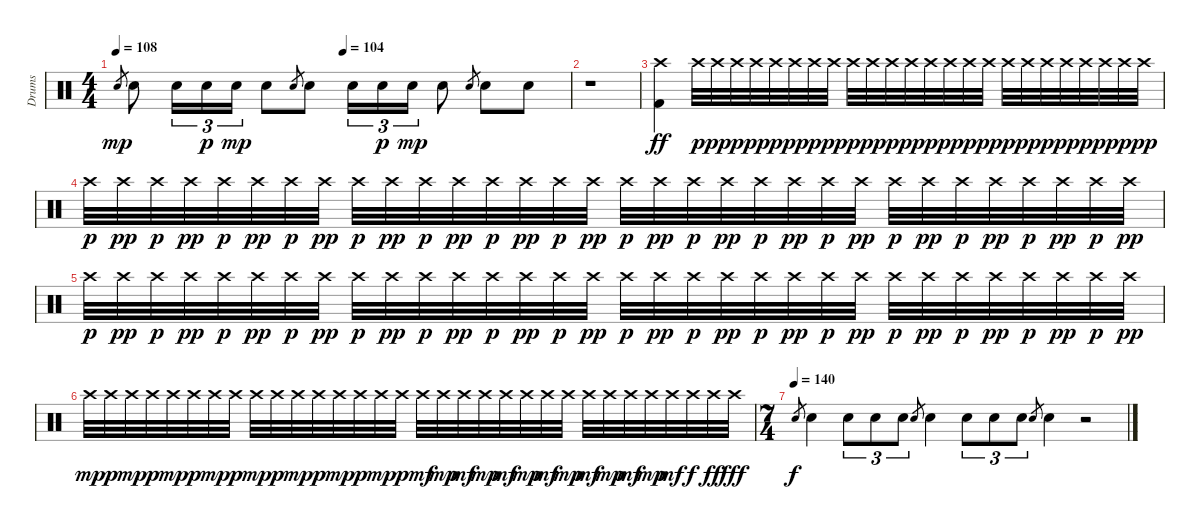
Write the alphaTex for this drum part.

\track ("Drums" "Drums") {instrument percussion}
\staff {score}
\articulation defaults
\ts (4 4)
\tempo 108
\tempo (104 0.5)
\clef neutral
\ks c "Snare (hit) 2".8{gr dy mp} "Snare (hit) 2".8 "Snare (hit) 2".16{tu (3 2)} "Snare (hit) 2".16{tu (3 2) dy p} "Snare (hit) 2".16{tu (3 2) dy mp} "Snare (hit) 2".8 "Snare (hit) 2".8{gr} "Snare (hit) 2".8 "Snare (hit) 2".16{tu (3 2)} "Snare (hit) 2".16{tu (3 2) dy p} "Snare (hit) 2".16{tu (3 2) dy mp} "Snare (hit) 2".8 "Snare (hit) 2".8{gr} "Snare (hit) 2".8 "Snare (hit) 2".8
|
r.1 |
("Crash high (hit)" "Kick (hit) 2").4{dy ff} "Crash high (hit)".32{dy p} "Crash high (hit)".32{dy pp} "Crash high (hit)".32{dy p} "Crash high (hit)".32{dy pp} "Crash high (hit)".32{dy p} "Crash high (hit)".32{dy pp} "Crash high (hit)".32{dy p} "Crash high (hit)".32{dy pp} "Crash high (hit)".32{dy p} "Crash high (hit)".32{dy pp} "Crash high (hit)".32{dy p} "Crash high (hit)".32{dy pp} "Crash high (hit)".32{dy p} "Crash high (hit)".32{dy pp} "Crash high (hit)".32{dy p} "Crash high (hit)".32{dy pp} "Crash high (hit)".32{dy p} "Crash high (hit)".32{dy pp} "Crash high (hit)".32{dy p} "Crash high (hit)".32{dy pp} "Crash high (hit)".32{dy p} "Crash high (hit)".32{dy pp} "Crash high (hit)".32{dy p} "Crash high (hit)".32{dy pp} |
"Crash high (hit)".32{dy p} "Crash high (hit)".32{dy pp} "Crash high (hit)".32{dy p} "Crash high (hit)".32{dy pp} "Crash high (hit)".32{dy p} "Crash high (hit)".32{dy pp} "Crash high (hit)".32{dy p} "Crash high (hit)".32{dy pp} "Crash high (hit)".32{dy p} "Crash high (hit)".32{dy pp} "Crash high (hit)".32{dy p} "Crash high (hit)".32{dy pp} "Crash high (hit)".32{dy p} "Crash high (hit)".32{dy pp} "Crash high (hit)".32{dy p} "Crash high (hit)".32{dy pp} "Crash high (hit)".32{dy p} "Crash high (hit)".32{dy pp} "Crash high (hit)".32{dy p} "Crash high (hit)".32{dy pp} "Crash high (hit)".32{dy p} "Crash high (hit)".32{dy pp} "Crash high (hit)".32{dy p} "Crash high (hit)".32{dy pp} "Crash high (hit)".32{dy p} "Crash high (hit)".32{dy pp} "Crash high (hit)".32{dy p} "Crash high (hit)".32{dy pp} "Crash high (hit)".32{dy p} "Crash high (hit)".32{dy pp} "Crash high (hit)".32{dy p} "Crash high (hit)".32{dy pp} |
"Crash high (hit)".32{dy p} "Crash high (hit)".32{dy pp} "Crash high (hit)".32{dy p} "Crash high (hit)".32{dy pp} "Crash high (hit)".32{dy p} "Crash high (hit)".32{dy pp} "Crash high (hit)".32{dy p} "Crash high (hit)".32{dy pp} "Crash high (hit)".32{dy p} "Crash high (hit)".32{dy pp} "Crash high (hit)".32{dy p} "Crash high (hit)".32{dy pp} "Crash high (hit)".32{dy p} "Crash high (hit)".32{dy pp} "Crash high (hit)".32{dy p} "Crash high (hit)".32{dy pp} "Crash high (hit)".32{dy p} "Crash high (hit)".32{dy pp} "Crash high (hit)".32{dy p} "Crash high (hit)".32{dy pp} "Crash high (hit)".32{dy p} "Crash high (hit)".32{dy pp} "Crash high (hit)".32{dy p} "Crash high (hit)".32{dy pp} "Crash high (hit)".32{dy p} "Crash high (hit)".32{dy pp} "Crash high (hit)".32{dy p} "Crash high (hit)".32{dy pp} "Crash high (hit)".32{dy p} "Crash high (hit)".32{dy pp} "Crash high (hit)".32{dy p} "Crash high (hit)".32{dy pp} |
"Crash high (hit)".32{dy mp} "Crash high (hit)".32{dy p} "Crash high (hit)".32{dy mp} "Crash high (hit)".32{dy p} "Crash high (hit)".32{dy mp} "Crash high (hit)".32{dy p} "Crash high (hit)".32{dy mp} "Crash high (hit)".32{dy p} "Crash high (hit)".32{dy mp} "Crash high (hit)".32{dy p} "Crash high (hit)".32{dy mp} "Crash high (hit)".32{dy p} "Crash high (hit)".32{dy mp} "Crash high (hit)".32{dy p} "Crash high (hit)".32{dy mp} "Crash high (hit)".32{dy p} "Crash high (hit)".32{dy mf} "Crash high (hit)".32{dy mp} "Crash high (hit)".32{dy mf} "Crash high (hit)".32{dy mp} "Crash high (hit)".32{dy mf} "Crash high (hit)".32{dy mp} "Crash high (hit)".32{dy mf} "Crash high (hit)".32{dy mp} "Crash high (hit)".32{dy mf} "Crash high (hit)".32{dy mp} "Crash high (hit)".32{dy mf} "Crash high (hit)".32{dy mp} "Crash high (hit)".32{dy mf} "Crash high (hit)".32{dy f} "Crash high (hit)".32{dy ff} "Crash high (hit)".32{dy fff} |
\ts (7 4)
\tempo (140)
"Snare (hit) 2".8{gr dy f} "Snare (hit) 2".4 "Snare (hit) 2".8{tu (3 2)} "Snare (hit) 2".8{tu (3 2)} "Snare (hit) 2".8{tu (3 2)} "Snare (hit) 2".8{gr} "Snare (hit) 2".4 "Snare (hit) 2".8{tu (3 2)} "Snare (hit) 2".8{tu (3 2)} "Snare (hit) 2".8{tu (3 2)} "Snare (hit) 2".8{gr} "Snare (hit) 2".4 r.2
